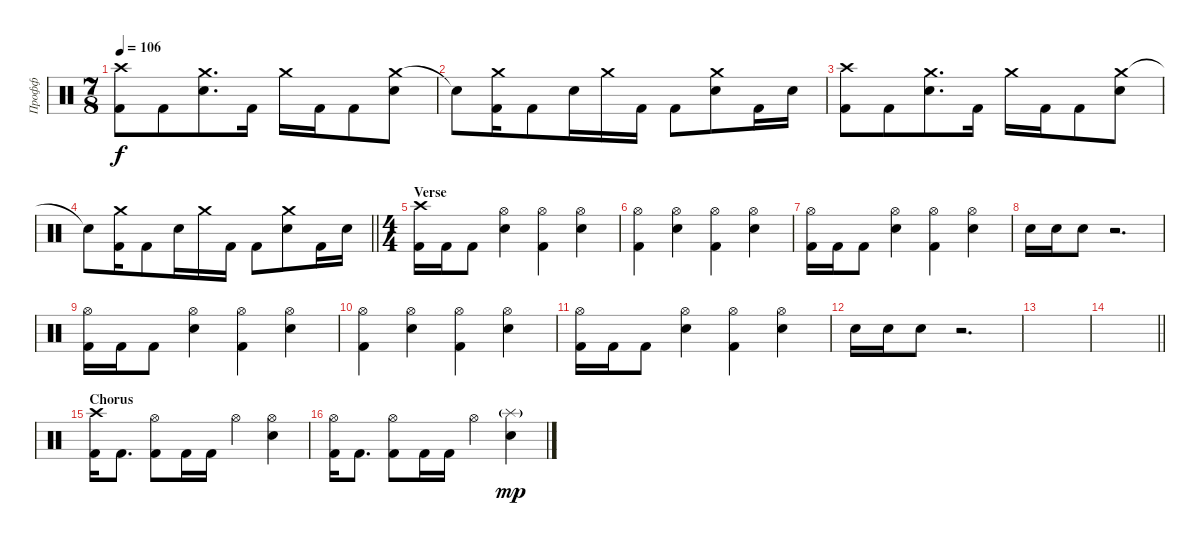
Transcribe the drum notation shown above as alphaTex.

\track ("Профф" "Профф") {instrument percussion}
\staff {score}
\articulation defaults
\ts (7 8)
\tempo 106
\clef neutral
\ks c
("Crash high (hit)" "Kick (hit) 2").8{dy f} "Kick (hit) 2".8 ("Crash medium (hit)" "Snare (hit) 2").8{d} "Kick (hit) 2".16 "Crash medium (hit)".16 "Kick (hit) 2".16 "Kick (hit) 2".8 ("Crash medium (hit)" "Snare (hit) 2").8 |
"Snare (hit)"{t}.8 ("Crash medium (hit)" "Kick (hit) 2").16 "Kick (hit) 2".8 "Snare (hit) 2".16 "Crash medium (hit)".16 "Kick (hit) 2".16 "Kick (hit) 2".8 ("Crash medium (hit)" "Snare (hit) 2").8 "Kick (hit) 2".16 "Snare (hit) 2".16 |
("Crash high (hit)" "Kick (hit) 2").8 "Kick (hit) 2".8 ("Crash medium (hit)" "Snare (hit) 2").8{d} "Kick (hit) 2".16 "Crash medium (hit)".16 "Kick (hit) 2".16 "Kick (hit) 2".8 ("Crash medium (hit)" "Snare (hit) 2").8 |
\barLineRight lightlight "Snare (hit)"{t}.8
("Crash medium (hit)" "Kick (hit) 2").16 "Kick (hit) 2".8 "Snare (hit) 2".16 "Crash medium (hit)".16 "Kick (hit) 2".16 "Kick (hit) 2".8 ("Crash medium (hit)" "Snare (hit) 2").8 "Kick (hit) 2".16 "Snare (hit) 2".16 |
\ts (4 4)
\section ("" "Verse")
("Crash high (hit)" "Kick (hit) 2").16 "Kick (hit) 2".16 "Kick (hit) 2".8 ("Hi-Hat (open)" "Snare (hit) 2").4 ("Hi-Hat (open)" "Kick (hit) 2").4 ("Hi-Hat (open)" "Snare (hit) 2").4 |
("Hi-Hat (open)" "Kick (hit) 2").4 ("Hi-Hat (open)" "Snare (hit) 2").4 ("Hi-Hat (open)" "Kick (hit) 2").4 ("Hi-Hat (open)" "Snare (hit) 2").4 |
("Hi-Hat (open)" "Kick (hit) 2").16 "Kick (hit) 2".16 "Kick (hit) 2".8 ("Hi-Hat (open)" "Snare (hit) 2").4 ("Hi-Hat (open)" "Kick (hit) 2").4 ("Hi-Hat (open)" "Snare (hit) 2").4 |
"Snare (hit) 2".16 "Snare (hit) 2".16 "Snare (hit) 2".8 r.2{d} |
("Hi-Hat (open)" "Kick (hit) 2").16 "Kick (hit) 2".16 "Kick (hit) 2".8 ("Hi-Hat (open)" "Snare (hit) 2").4 ("Hi-Hat (open)" "Kick (hit) 2").4 ("Hi-Hat (open)" "Snare (hit) 2").4 |
("Hi-Hat (open)" "Kick (hit) 2").4 ("Hi-Hat (open)" "Snare (hit) 2").4 ("Hi-Hat (open)" "Kick (hit) 2").4 ("Hi-Hat (open)" "Snare (hit) 2").4 |
("Hi-Hat (open)" "Kick (hit) 2").16 "Kick (hit) 2".16 "Kick (hit) 2".8 ("Hi-Hat (open)" "Snare (hit) 2").4 ("Hi-Hat (open)" "Kick (hit) 2").4 ("Hi-Hat (open)" "Snare (hit) 2").4 |
"Snare (hit) 2".16 "Snare (hit) 2".16 "Snare (hit) 2".8 r.2{d} |
|
\barLineRight lightlight
|
\section ("" "Chorus")
("Crash high (hit)" "Kick (hit) 2").16 "Kick (hit) 2".8{d} ("Hi-Hat (open)" "Kick (hit) 2").8 "Kick (hit) 2".16 "Kick (hit) 2".16 "Hi-Hat (open)".4 ("Hi-Hat (open)" "Snare (hit) 2").4 |
("Hi-Hat (open)" "Kick (hit) 2").16 "Kick (hit) 2".8{d} ("Hi-Hat (open)" "Kick (hit) 2").8 "Kick (hit) 2".16 "Kick (hit) 2".16 "Hi-Hat (open)".4 ("Splash (hit)"{g} "Snare (hit) 2").4{dy mp}
